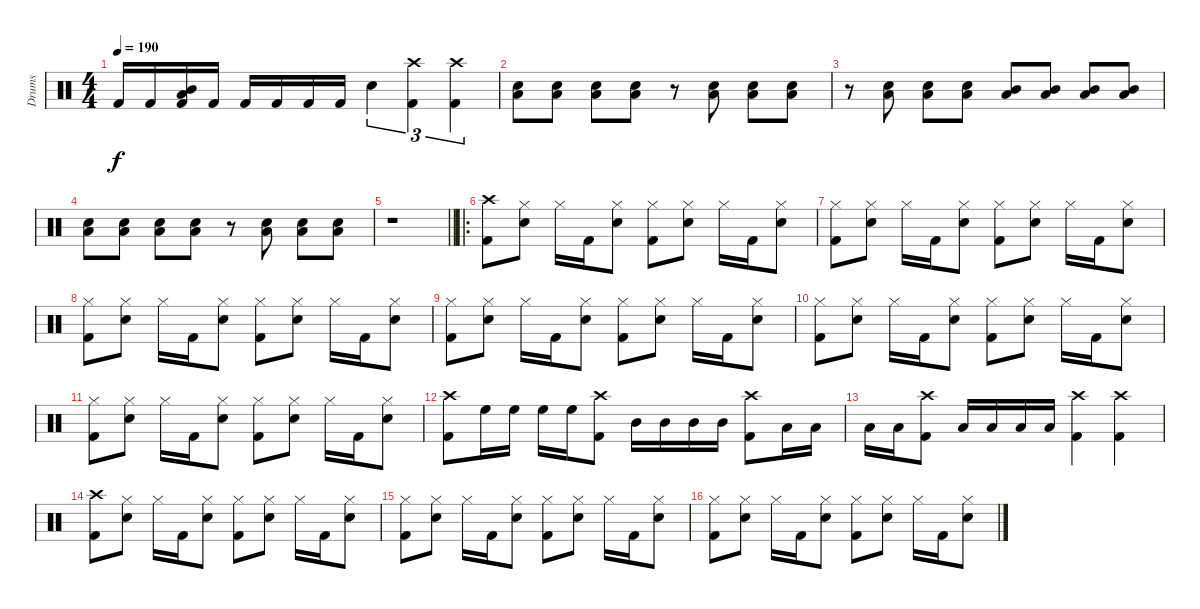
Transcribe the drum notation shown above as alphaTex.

\track ("Drums" "Drums") {instrument percussion}
\staff {score}
\articulation defaults
\ts (4 4)
\tempo 190
\clef neutral
\ks c "Kick (hit) 2".16{dy f} "Kick (hit) 2".16
("Mid Tom (hit)" "Low Tom (hit)" "Kick (hit) 2").16 "Kick (hit) 2".16 "Kick (hit) 2".16 "Kick (hit) 2".16 "Kick (hit) 2".16 "Kick (hit) 2".16 "Snare (hit) 2".4{tu (3 2)} ("Crash high (hit)" "Kick (hit) 2").4{tu (3 2)} ("Crash high (hit)" "Kick (hit) 2").4{tu (3 2)} |
("Snare (hit) 2" "Low Floor Tom (hit)").8 ("Snare (hit) 2" "Low Floor Tom (hit)").8 ("Snare (hit) 2" "Low Floor Tom (hit)").8 ("Snare (hit) 2" "Low Floor Tom (hit)").8 r.8 ("Snare (hit) 2" "Low Floor Tom (hit)").8 ("Snare (hit) 2" "Low Floor Tom (hit)").8 ("Snare (hit) 2" "Low Floor Tom (hit)").8 |
r.8 ("Snare (hit) 2" "Low Floor Tom (hit)").8 ("Snare (hit) 2" "Low Floor Tom (hit)").8 ("Snare (hit) 2" "Low Floor Tom (hit)").8 ("Mid Tom (hit)" "Low Floor Tom (hit)").8 ("Mid Tom (hit)" "Low Floor Tom (hit)").8 ("Mid Tom (hit)" "Low Floor Tom (hit)").8 ("Mid Tom (hit)" "Low Floor Tom (hit)").8 |
("Snare (hit) 2" "Low Floor Tom (hit)").8 ("Snare (hit) 2" "Low Floor Tom (hit)").8 ("Snare (hit) 2" "Low Floor Tom (hit)").8 ("Snare (hit) 2" "Low Floor Tom (hit)").8 r.8 ("Snare (hit) 2" "Low Floor Tom (hit)").8 ("Snare (hit) 2" "Low Floor Tom (hit)").8 ("Snare (hit) 2" "Low Floor Tom (hit)").8 |
\barLineRight lightlight
r.1 |
\ro
("Crash high (hit)" "Kick (hit) 2").8 ("Hi-Hat (closed)" "Snare (hit) 2").8 "Hi-Hat (closed)".16 "Kick (hit) 2".16 ("Hi-Hat (closed)" "Snare (hit) 2").8 ("Hi-Hat (closed)" "Kick (hit) 2").8 ("Hi-Hat (closed)" "Snare (hit) 2").8 "Hi-Hat (closed)".16 "Kick (hit) 2".16 ("Hi-Hat (closed)" "Snare (hit) 2").8 |
("Hi-Hat (closed)" "Kick (hit) 2").8 ("Hi-Hat (closed)" "Snare (hit) 2").8 "Hi-Hat (closed)".16 "Kick (hit) 2".16 ("Hi-Hat (closed)" "Snare (hit) 2").8 ("Hi-Hat (closed)" "Kick (hit) 2").8 ("Hi-Hat (closed)" "Snare (hit) 2").8 "Hi-Hat (closed)".16 "Kick (hit) 2".16 ("Hi-Hat (closed)" "Snare (hit) 2").8 |
("Hi-Hat (closed)" "Kick (hit) 2").8 ("Hi-Hat (closed)" "Snare (hit) 2").8 "Hi-Hat (closed)".16 "Kick (hit) 2".16 ("Hi-Hat (closed)" "Snare (hit) 2").8 ("Hi-Hat (closed)" "Kick (hit) 2").8 ("Hi-Hat (closed)" "Snare (hit) 2").8 "Hi-Hat (closed)".16 "Kick (hit) 2".16 ("Hi-Hat (closed)" "Snare (hit) 2").8 |
("Hi-Hat (closed)" "Kick (hit) 2").8 ("Hi-Hat (closed)" "Snare (hit) 2").8 "Hi-Hat (closed)".16 "Kick (hit) 2".16 ("Hi-Hat (closed)" "Snare (hit) 2").8 ("Hi-Hat (closed)" "Kick (hit) 2").8 ("Hi-Hat (closed)" "Snare (hit) 2").8 "Hi-Hat (closed)".16 "Kick (hit) 2".16 ("Hi-Hat (closed)" "Snare (hit) 2").8 |
("Hi-Hat (closed)" "Kick (hit) 2").8 ("Hi-Hat (closed)" "Snare (hit) 2").8 "Hi-Hat (closed)".16 "Kick (hit) 2".16 ("Hi-Hat (closed)" "Snare (hit) 2").8 ("Hi-Hat (closed)" "Kick (hit) 2").8 ("Hi-Hat (closed)" "Snare (hit) 2").8 "Hi-Hat (closed)".16 "Kick (hit) 2".16 ("Hi-Hat (closed)" "Snare (hit) 2").8 |
("Hi-Hat (closed)" "Kick (hit) 2").8 ("Hi-Hat (closed)" "Snare (hit) 2").8 "Hi-Hat (closed)".16 "Kick (hit) 2".16 ("Hi-Hat (closed)" "Snare (hit) 2").8 ("Hi-Hat (closed)" "Kick (hit) 2").8 ("Hi-Hat (closed)" "Snare (hit) 2").8 "Hi-Hat (closed)".16 "Kick (hit) 2".16 ("Hi-Hat (closed)" "Snare (hit) 2").8 |
("Crash high (hit)" "Kick (hit) 2").8 "High Floor Tom (hit)".16 "High Floor Tom (hit)".16 "High Floor Tom (hit)".16 "High Floor Tom (hit)".16 ("Crash high (hit)" "Kick (hit) 2").8 "Mid Tom (hit)".16 "Mid Tom (hit)".16 "Mid Tom (hit)".16 "Mid Tom (hit)".16 ("Crash high (hit)" "Kick (hit) 2").8 "Low Tom (hit)".16 "Low Tom (hit)".16 |
"Low Tom (hit)".16 "Low Tom (hit)".16 ("Crash high (hit)" "Kick (hit) 2").8 "Low Floor Tom (hit)".16 "Low Floor Tom (hit)".16 "Low Floor Tom (hit)".16 "Low Floor Tom (hit)".16 ("Crash high (hit)" "Kick (hit) 2").4 ("Crash high (hit)" "Kick (hit) 2").4 |
("Crash high (hit)" "Kick (hit) 2").8 ("Hi-Hat (closed)" "Snare (hit) 2").8 "Hi-Hat (closed)".16 "Kick (hit) 2".16 ("Hi-Hat (closed)" "Snare (hit) 2").8 ("Hi-Hat (closed)" "Kick (hit) 2").8 ("Hi-Hat (closed)" "Snare (hit) 2").8 "Hi-Hat (closed)".16 "Kick (hit) 2".16 ("Hi-Hat (closed)" "Snare (hit) 2").8 |
("Hi-Hat (closed)" "Kick (hit) 2").8 ("Hi-Hat (closed)" "Snare (hit) 2").8 "Hi-Hat (closed)".16 "Kick (hit) 2".16 ("Hi-Hat (closed)" "Snare (hit) 2").8 ("Hi-Hat (closed)" "Kick (hit) 2").8 ("Hi-Hat (closed)" "Snare (hit) 2").8 "Hi-Hat (closed)".16 "Kick (hit) 2".16 ("Hi-Hat (closed)" "Snare (hit) 2").8 |
("Hi-Hat (closed)" "Kick (hit) 2").8 ("Hi-Hat (closed)" "Snare (hit) 2").8 "Hi-Hat (closed)".16 "Kick (hit) 2".16 ("Hi-Hat (closed)" "Snare (hit) 2").8 ("Hi-Hat (closed)" "Kick (hit) 2").8 ("Hi-Hat (closed)" "Snare (hit) 2").8 "Hi-Hat (closed)".16 "Kick (hit) 2".16 ("Hi-Hat (closed)" "Snare (hit) 2").8
